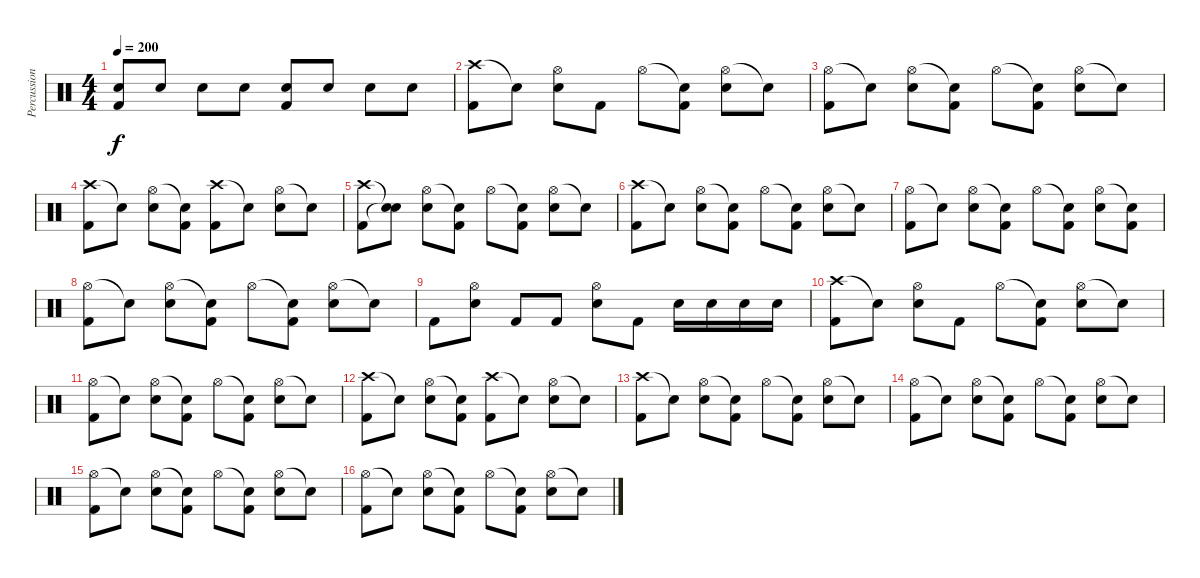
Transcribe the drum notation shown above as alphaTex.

\track ("Percussions" "Percussion") {instrument percussion}
\staff {score}
\articulation defaults
\ts (4 4)
\tempo 200
\clef neutral
\ks c
("Electric Snare (hit)" "Kick (hit) 2").8{dy f} "Electric Snare (hit)".8 "Electric Snare (hit)".8 "Electric Snare (hit)".8 ("Electric Snare (hit)" "Kick (hit) 2").8 "Electric Snare (hit)".8 "Electric Snare (hit)".8 "Electric Snare (hit)".8 |
("Crash high (hit)" "Kick (hit) 2").8 "Snare (hit)"{t}.8 ("Hi-Hat (open)" "Electric Snare (hit)").8 "Kick (hit) 2".8 "Hi-Hat (open)".8 ("Snare (hit)"{t} "Kick (hit) 2").8 ("Hi-Hat (open)" "Electric Snare (hit)").8 "Snare (hit)"{t}.8 |
("Hi-Hat (open)" "Kick (hit) 2").8 "Snare (hit)"{t}.8 ("Hi-Hat (open)" "Electric Snare (hit)").8 ("Snare (hit)"{t} "Kick (hit) 2").8 "Hi-Hat (open)".8 ("Snare (hit)"{t} "Kick (hit) 2").8 ("Hi-Hat (open)" "Electric Snare (hit)").8 "Snare (hit)"{t}.8 |
("Crash high (hit)" "Kick (hit) 2").8 "Snare (hit)"{t}.8 ("Hi-Hat (open)" "Electric Snare (hit)").8 ("Snare (hit)"{t} "Kick (hit) 2").8 ("Crash high (hit)" "Kick (hit) 2").8 "Snare (hit)"{t}.8 ("Hi-Hat (open)" "Electric Snare (hit)").8 "Snare (hit)"{t}.8 |
("Crash high (hit)" "Kick (hit) 2").8 ("Snare (hit)"{t} "Snare (hit)"{t}).8 ("Hi-Hat (open)" "Electric Snare (hit)").8 ("Snare (hit)"{t} "Kick (hit) 2").8 "Hi-Hat (open)".8 ("Snare (hit)"{t} "Kick (hit) 2").8 ("Hi-Hat (open)" "Electric Snare (hit)").8 "Snare (hit)"{t}.8 |
("Crash high (hit)" "Kick (hit) 2").8 "Snare (hit)"{t}.8 ("Hi-Hat (open)" "Electric Snare (hit)").8 ("Snare (hit)"{t} "Kick (hit) 2").8 "Hi-Hat (open)".8 ("Snare (hit)"{t} "Kick (hit) 2").8 ("Hi-Hat (open)" "Electric Snare (hit)").8 "Snare (hit)"{t}.8 |
("Hi-Hat (open)" "Kick (hit) 2").8 "Snare (hit)"{t}.8 ("Hi-Hat (open)" "Electric Snare (hit)").8 ("Snare (hit)"{t} "Kick (hit) 2").8 "Hi-Hat (open)".8 ("Snare (hit)"{t} "Kick (hit) 2").8 ("Hi-Hat (open)" "Electric Snare (hit)").8 ("Snare (hit)"{t} "Kick (hit) 2").8 |
("Hi-Hat (open)" "Kick (hit) 2").8 "Snare (hit)"{t}.8 ("Hi-Hat (open)" "Electric Snare (hit)").8 ("Snare (hit)"{t} "Kick (hit) 2").8 "Hi-Hat (open)".8 ("Snare (hit)"{t} "Kick (hit) 2").8 ("Hi-Hat (open)" "Electric Snare (hit)").8 "Snare (hit)"{t}.8 |
"Kick (hit) 2".8 ("Hi-Hat (open)" "Electric Snare (hit)").8 "Kick (hit) 2".8 "Kick (hit) 2".8 ("Hi-Hat (open)" "Electric Snare (hit)").8 "Kick (hit) 2".8 "Electric Snare (hit)".16 "Electric Snare (hit)".16 "Electric Snare (hit)".16 "Electric Snare (hit)".16 |
("Crash high (hit)" "Kick (hit) 2").8 "Snare (hit)"{t}.8 ("Hi-Hat (open)" "Electric Snare (hit)").8 "Kick (hit) 2".8 "Hi-Hat (open)".8 ("Snare (hit)"{t} "Kick (hit) 2").8 ("Hi-Hat (open)" "Electric Snare (hit)").8 "Snare (hit)"{t}.8 |
("Hi-Hat (open)" "Kick (hit) 2").8 "Snare (hit)"{t}.8 ("Hi-Hat (open)" "Electric Snare (hit)").8 ("Snare (hit)"{t} "Kick (hit) 2").8 "Hi-Hat (open)".8 ("Snare (hit)"{t} "Kick (hit) 2").8 ("Hi-Hat (open)" "Electric Snare (hit)").8 "Snare (hit)"{t}.8 |
("Crash high (hit)" "Kick (hit) 2").8 "Snare (hit)"{t}.8 ("Hi-Hat (open)" "Electric Snare (hit)").8 ("Snare (hit)"{t} "Kick (hit) 2").8 ("Crash high (hit)" "Kick (hit) 2").8 "Snare (hit)"{t}.8 ("Hi-Hat (open)" "Electric Snare (hit)").8 "Snare (hit)"{t}.8 |
("Crash high (hit)" "Kick (hit) 2").8 "Snare (hit)"{t}.8 ("Hi-Hat (open)" "Electric Snare (hit)").8 ("Snare (hit)"{t} "Kick (hit) 2").8 "Hi-Hat (open)".8 ("Snare (hit)"{t} "Kick (hit) 2").8 ("Hi-Hat (open)" "Electric Snare (hit)").8 "Snare (hit)"{t}.8 |
("Hi-Hat (open)" "Kick (hit) 2").8 "Snare (hit)"{t}.8 ("Hi-Hat (open)" "Electric Snare (hit)").8 ("Snare (hit)"{t} "Kick (hit) 2").8 "Hi-Hat (open)".8 ("Snare (hit)"{t} "Kick (hit) 2").8 ("Hi-Hat (open)" "Electric Snare (hit)").8 "Snare (hit)"{t}.8 |
("Hi-Hat (open)" "Kick (hit) 2").8 "Snare (hit)"{t}.8 ("Hi-Hat (open)" "Electric Snare (hit)").8 ("Snare (hit)"{t} "Kick (hit) 2").8 "Hi-Hat (open)".8 ("Snare (hit)"{t} "Kick (hit) 2").8 ("Hi-Hat (open)" "Electric Snare (hit)").8 "Snare (hit)"{t}.8 |
("Hi-Hat (open)" "Kick (hit) 2").8 "Snare (hit)"{t}.8 ("Hi-Hat (open)" "Electric Snare (hit)").8 ("Snare (hit)"{t} "Kick (hit) 2").8 "Hi-Hat (open)".8 ("Snare (hit)"{t} "Kick (hit) 2").8 ("Hi-Hat (open)" "Electric Snare (hit)").8 "Snare (hit)"{t}.8
